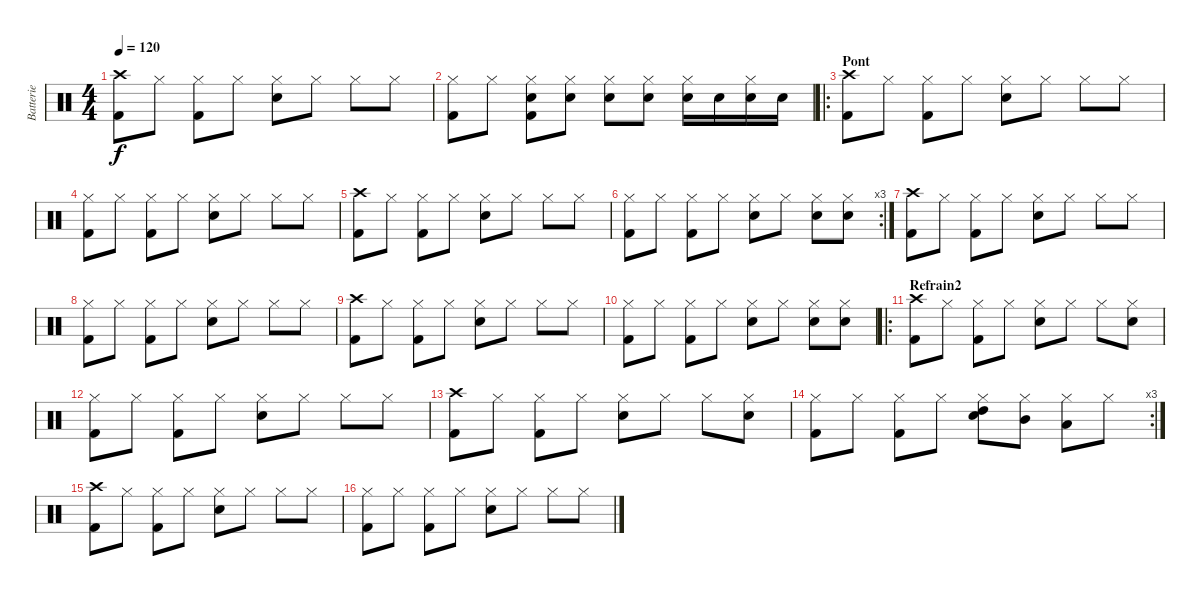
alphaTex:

\track ("Batterie" "Batterie") {instrument percussion}
\staff {score}
\articulation defaults
\ts (4 4)
\tempo 120
\clef neutral
\ks c
("Crash high (hit)" "Kick (hit) 2").8{dy f} "Hi-Hat (closed)".8 ("Hi-Hat (closed)" "Kick (hit) 2").8 "Hi-Hat (closed)".8 ("Hi-Hat (closed)" "Electric Snare (hit)").8 "Hi-Hat (closed)".8 "Hi-Hat (closed)".8 "Hi-Hat (closed)".8 |
("Hi-Hat (closed)" "Kick (hit) 2").8 "Hi-Hat (closed)".8 ("Hi-Hat (closed)" "Snare (hit) 2" "Kick (hit) 2").8 ("Hi-Hat (closed)" "Snare (hit) 2").8 ("Hi-Hat (closed)" "Snare (hit) 2").8 ("Hi-Hat (closed)" "Snare (hit) 2").8 ("Hi-Hat (closed)" "Snare (hit) 2").16 "Snare (hit) 2".16 ("Hi-Hat (closed)" "Snare (hit) 2").16 "Snare (hit) 2".16 |
\ro
\section ("" "Pont")
("Crash high (hit)" "Kick (hit) 2").8 "Hi-Hat (closed)".8 ("Hi-Hat (closed)" "Kick (hit) 2").8 "Hi-Hat (closed)".8 ("Hi-Hat (closed)" "Electric Snare (hit)").8 "Hi-Hat (closed)".8 "Hi-Hat (closed)".8 "Hi-Hat (closed)".8 |
("Hi-Hat (closed)" "Kick (hit) 2").8 "Hi-Hat (closed)".8 ("Hi-Hat (closed)" "Kick (hit) 2").8 "Hi-Hat (closed)".8 ("Hi-Hat (closed)" "Electric Snare (hit)").8 "Hi-Hat (closed)".8 "Hi-Hat (closed)".8 "Hi-Hat (closed)".8 |
("Crash high (hit)" "Kick (hit) 2").8 "Hi-Hat (closed)".8 ("Hi-Hat (closed)" "Kick (hit) 2").8 "Hi-Hat (closed)".8 ("Hi-Hat (closed)" "Electric Snare (hit)").8 "Hi-Hat (closed)".8 "Hi-Hat (closed)".8 "Hi-Hat (closed)".8 |
\rc 3
("Hi-Hat (closed)" "Kick (hit) 2").8 "Hi-Hat (closed)".8 ("Hi-Hat (closed)" "Kick (hit) 2").8 "Hi-Hat (closed)".8 ("Hi-Hat (closed)" "Electric Snare (hit)").8 "Hi-Hat (closed)".8 ("Hi-Hat (closed)" "Electric Snare (hit)").8 ("Hi-Hat (closed)" "Electric Snare (hit)").8 |
("Crash high (hit)" "Kick (hit) 2").8 "Hi-Hat (closed)".8 ("Hi-Hat (closed)" "Kick (hit) 2").8 "Hi-Hat (closed)".8 ("Hi-Hat (closed)" "Electric Snare (hit)").8 "Hi-Hat (closed)".8 "Hi-Hat (closed)".8 "Hi-Hat (closed)".8 |
("Hi-Hat (closed)" "Kick (hit) 2").8 "Hi-Hat (closed)".8 ("Hi-Hat (closed)" "Kick (hit) 2").8 "Hi-Hat (closed)".8 ("Hi-Hat (closed)" "Electric Snare (hit)").8 "Hi-Hat (closed)".8 "Hi-Hat (closed)".8 "Hi-Hat (closed)".8 |
("Crash high (hit)" "Kick (hit) 2").8 "Hi-Hat (closed)".8 ("Hi-Hat (closed)" "Kick (hit) 2").8 "Hi-Hat (closed)".8 ("Hi-Hat (closed)" "Electric Snare (hit)").8 "Hi-Hat (closed)".8 "Hi-Hat (closed)".8 "Hi-Hat (closed)".8 |
("Hi-Hat (closed)" "Kick (hit) 2").8 "Hi-Hat (closed)".8 ("Hi-Hat (closed)" "Kick (hit) 2").8 "Hi-Hat (closed)".8 ("Hi-Hat (closed)" "Electric Snare (hit)").8 "Hi-Hat (closed)".8 ("Hi-Hat (closed)" "Electric Snare (hit)").8 ("Hi-Hat (closed)" "Electric Snare (hit)").8 |
\ro
\section ("" "Refrain2")
("Crash high (hit)" "Kick (hit) 2").8 "Hi-Hat (closed)".8 ("Hi-Hat (closed)" "Kick (hit) 2").8 "Hi-Hat (closed)".8 ("Hi-Hat (closed)" "Electric Snare (hit)").8 "Hi-Hat (closed)".8 "Hi-Hat (closed)".8 ("Hi-Hat (closed)" "Electric Snare (hit)").8 |
("Hi-Hat (closed)" "Kick (hit) 2").8 "Hi-Hat (closed)".8 ("Hi-Hat (closed)" "Kick (hit) 2").8 "Hi-Hat (closed)".8 ("Hi-Hat (closed)" "Electric Snare (hit)").8 "Hi-Hat (closed)".8 "Hi-Hat (closed)".8 "Hi-Hat (closed)".8 |
("Crash high (hit)" "Kick (hit) 2").8 "Hi-Hat (closed)".8 ("Hi-Hat (closed)" "Kick (hit) 2").8 "Hi-Hat (closed)".8 ("Hi-Hat (closed)" "Electric Snare (hit)").8 "Hi-Hat (closed)".8 "Hi-Hat (closed)".8 ("Hi-Hat (closed)" "Electric Snare (hit)").8 |
\rc 3
("Hi-Hat (closed)" "Kick (hit) 2").8 "Hi-Hat (closed)".8 ("Hi-Hat (closed)" "Kick (hit) 2").8 "Hi-Hat (closed)".8 ("Hi-Hat (closed)" "Electric Snare (hit)" "High Tom (hit)").8 ("Hi-Hat (closed)" "Mid Tom (hit)").8 ("Hi-Hat (closed)" "Low Tom (hit)").8 "Hi-Hat (closed)".8 |
("Crash high (hit)" "Kick (hit) 2").8 "Hi-Hat (closed)".8 ("Hi-Hat (closed)" "Kick (hit) 2").8 "Hi-Hat (closed)".8 ("Hi-Hat (closed)" "Electric Snare (hit)").8 "Hi-Hat (closed)".8 "Hi-Hat (closed)".8 "Hi-Hat (closed)".8 |
("Hi-Hat (closed)" "Kick (hit) 2").8 "Hi-Hat (closed)".8 ("Hi-Hat (closed)" "Kick (hit) 2").8 "Hi-Hat (closed)".8 ("Hi-Hat (closed)" "Electric Snare (hit)").8 "Hi-Hat (closed)".8 "Hi-Hat (closed)".8 "Hi-Hat (closed)".8
